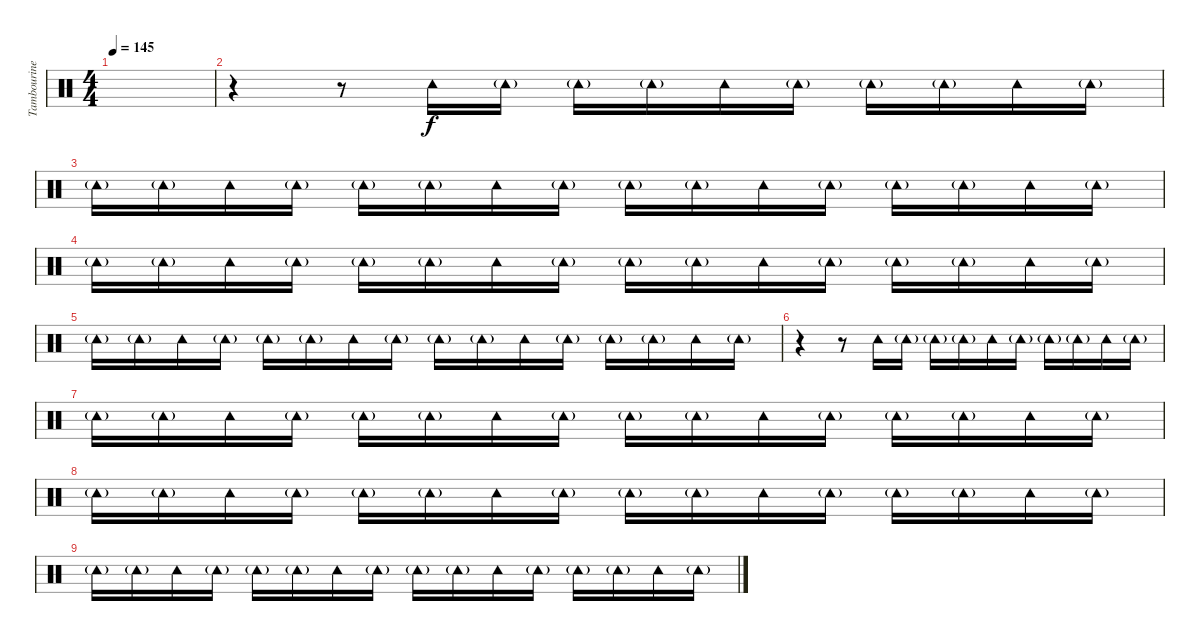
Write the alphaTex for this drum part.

\track ("Tambourine" "Tambourine") {instrument percussion}
\staff {score}
\articulation defaults
\ts (4 4)
\tempo 145
\clef neutral
\ks c
|
r.4 r.8 "Tambourine (hit)".16 "Tambourine (hit)"{g}.16 "Tambourine (hit)"{g}.16 "Tambourine (hit)"{g}.16 "Tambourine (hit)".16 "Tambourine (hit)"{g}.16 "Tambourine (hit)"{g}.16 "Tambourine (hit)"{g}.16 "Tambourine (hit)".16 "Tambourine (hit)"{g}.16 |
"Tambourine (hit)"{g}.16 "Tambourine (hit)"{g}.16 "Tambourine (hit)".16 "Tambourine (hit)"{g}.16 "Tambourine (hit)"{g}.16 "Tambourine (hit)"{g}.16 "Tambourine (hit)".16 "Tambourine (hit)"{g}.16 "Tambourine (hit)"{g}.16 "Tambourine (hit)"{g}.16 "Tambourine (hit)".16 "Tambourine (hit)"{g}.16 "Tambourine (hit)"{g}.16 "Tambourine (hit)"{g}.16 "Tambourine (hit)".16 "Tambourine (hit)"{g}.16 |
"Tambourine (hit)"{g}.16 "Tambourine (hit)"{g}.16 "Tambourine (hit)".16 "Tambourine (hit)"{g}.16 "Tambourine (hit)"{g}.16 "Tambourine (hit)"{g}.16 "Tambourine (hit)".16 "Tambourine (hit)"{g}.16 "Tambourine (hit)"{g}.16 "Tambourine (hit)"{g}.16 "Tambourine (hit)".16 "Tambourine (hit)"{g}.16 "Tambourine (hit)"{g}.16 "Tambourine (hit)"{g}.16 "Tambourine (hit)".16 "Tambourine (hit)"{g}.16 |
"Tambourine (hit)"{g}.16 "Tambourine (hit)"{g}.16 "Tambourine (hit)".16 "Tambourine (hit)"{g}.16 "Tambourine (hit)"{g}.16 "Tambourine (hit)"{g}.16 "Tambourine (hit)".16 "Tambourine (hit)"{g}.16 "Tambourine (hit)"{g}.16 "Tambourine (hit)"{g}.16 "Tambourine (hit)".16 "Tambourine (hit)"{g}.16 "Tambourine (hit)"{g}.16 "Tambourine (hit)"{g}.16 "Tambourine (hit)".16 "Tambourine (hit)"{g}.16 |
r.4 r.8 "Tambourine (hit)".16 "Tambourine (hit)"{g}.16 "Tambourine (hit)"{g}.16 "Tambourine (hit)"{g}.16 "Tambourine (hit)".16 "Tambourine (hit)"{g}.16 "Tambourine (hit)"{g}.16 "Tambourine (hit)"{g}.16 "Tambourine (hit)".16 "Tambourine (hit)"{g}.16 |
"Tambourine (hit)"{g}.16 "Tambourine (hit)"{g}.16 "Tambourine (hit)".16 "Tambourine (hit)"{g}.16 "Tambourine (hit)"{g}.16 "Tambourine (hit)"{g}.16 "Tambourine (hit)".16 "Tambourine (hit)"{g}.16 "Tambourine (hit)"{g}.16 "Tambourine (hit)"{g}.16 "Tambourine (hit)".16 "Tambourine (hit)"{g}.16 "Tambourine (hit)"{g}.16 "Tambourine (hit)"{g}.16 "Tambourine (hit)".16 "Tambourine (hit)"{g}.16 |
"Tambourine (hit)"{g}.16 "Tambourine (hit)"{g}.16 "Tambourine (hit)".16 "Tambourine (hit)"{g}.16 "Tambourine (hit)"{g}.16 "Tambourine (hit)"{g}.16 "Tambourine (hit)".16 "Tambourine (hit)"{g}.16 "Tambourine (hit)"{g}.16 "Tambourine (hit)"{g}.16 "Tambourine (hit)".16 "Tambourine (hit)"{g}.16 "Tambourine (hit)"{g}.16 "Tambourine (hit)"{g}.16 "Tambourine (hit)".16 "Tambourine (hit)"{g}.16 |
"Tambourine (hit)"{g}.16 "Tambourine (hit)"{g}.16 "Tambourine (hit)".16 "Tambourine (hit)"{g}.16 "Tambourine (hit)"{g}.16 "Tambourine (hit)"{g}.16 "Tambourine (hit)".16 "Tambourine (hit)"{g}.16 "Tambourine (hit)"{g}.16 "Tambourine (hit)"{g}.16 "Tambourine (hit)".16 "Tambourine (hit)"{g}.16 "Tambourine (hit)"{g}.16 "Tambourine (hit)"{g}.16 "Tambourine (hit)".16 "Tambourine (hit)"{g}.16
